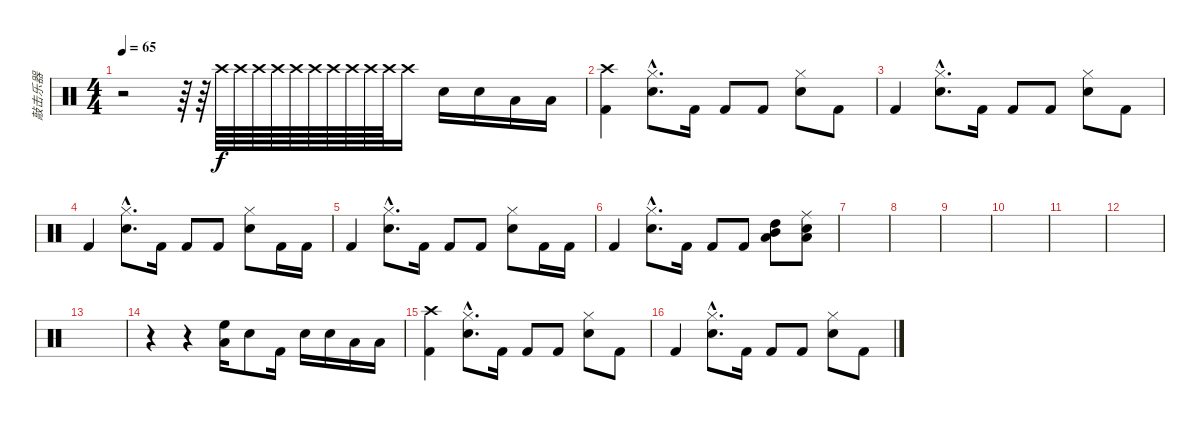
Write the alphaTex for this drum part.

\track ("敲击乐器" "敲击乐器") {instrument percussion}
\staff {score}
\articulation defaults
\ts (4 4)
\tempo 65
\clef neutral
\ks c
r.2{dy f} r.64 r.64 "Crash high (hit)".64 "Crash high (hit)".64 "Crash high (hit)".64 "Crash high (hit)".64 "Crash high (hit)".64 "Crash high (hit)".64 "Crash high (hit)".64 "Crash high (hit)".64 "Crash high (hit)".64 "Crash high (hit)".64 "Crash high (hit)".16 "Electric Snare (hit)".16 "Snare (hit) 2".16 "Low Tom (hit)".16 "Low Floor Tom (hit)".16 |
("Crash high (hit)" "Kick (hit) 2").4 ("Hi-Hat (closed)"{hac} "Electric Snare (hit)"{hac}).8{d} "Kick (hit) 2".16 "Kick (hit) 2".8 "Kick (hit) 2".8 ("Hi-Hat (closed)" "Electric Snare (hit)").8 "Kick (hit) 2".8 |
"Kick (hit) 2".4 ("Hi-Hat (closed)"{hac} "Electric Snare (hit)"{hac}).8{d} "Kick (hit) 2".16 "Kick (hit) 2".8 "Kick (hit) 2".8 ("Hi-Hat (closed)" "Electric Snare (hit)").8 "Kick (hit) 2".8 |
"Kick (hit) 2".4 ("Hi-Hat (closed)"{hac} "Electric Snare (hit)"{hac}).8{d} "Kick (hit) 2".16 "Kick (hit) 2".8 "Kick (hit) 2".8 ("Hi-Hat (closed)" "Electric Snare (hit)").8 "Kick (hit) 2".16 "Kick (hit) 2".16 |
"Kick (hit) 2".4 ("Hi-Hat (closed)"{hac} "Electric Snare (hit)"{hac}).8{d} "Kick (hit) 2".16 "Kick (hit) 2".8 "Kick (hit) 2".8 ("Hi-Hat (closed)" "Electric Snare (hit)").8 "Kick (hit) 2".16 "Kick (hit) 2".16 |
"Kick (hit) 2".4 ("Hi-Hat (closed)"{hac} "Electric Snare (hit)"{hac}).8{d} "Kick (hit) 2".16 "Kick (hit) 2".8 "Kick (hit) 2".8 ("Mid Tom (hit)" "High Tom (hit)" "Low Tom (hit)").8 ("Ride (middle)" "Low Floor Tom (hit)" "Snare (hit) 2").8 |
|
|
|
|
|
|
|
r.4 r.4 ("High Floor Tom (hit)" "Low Floor Tom (hit)").16 "Snare (hit) 2".8 "Kick (hit) 2".16 "Electric Snare (hit)".16 "Snare (hit) 2".16 "Low Tom (hit)".16 "Low Floor Tom (hit)".16 |
("Crash high (hit)" "Kick (hit) 2").4 ("Hi-Hat (closed)"{hac} "Electric Snare (hit)"{hac}).8{d} "Kick (hit) 2".16 "Kick (hit) 2".8 "Kick (hit) 2".8 ("Hi-Hat (closed)" "Electric Snare (hit)").8 "Kick (hit) 2".8 |
"Kick (hit) 2".4 ("Hi-Hat (closed)"{hac} "Electric Snare (hit)"{hac}).8{d} "Kick (hit) 2".16 "Kick (hit) 2".8 "Kick (hit) 2".8 ("Hi-Hat (closed)" "Electric Snare (hit)").8 "Kick (hit) 2".8
